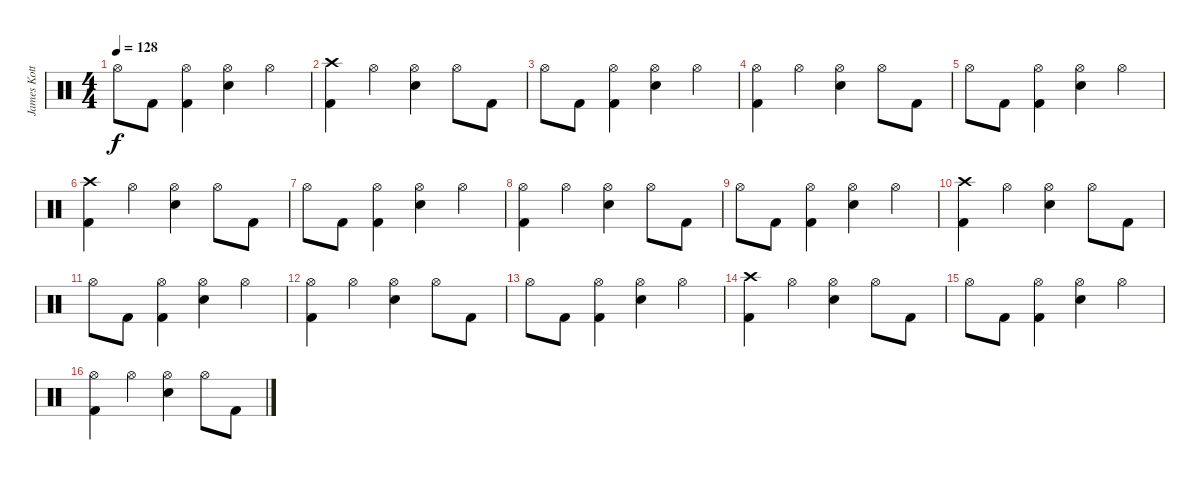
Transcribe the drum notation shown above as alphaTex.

\track ("James Kottak" "James Kott") {instrument percussion}
\staff {score}
\articulation defaults
\ts (4 4)
\tempo 128
\clef neutral
\ks c "Hi-Hat (open)".8{dy f} "Kick (hit) 2".8
("Hi-Hat (open)" "Kick (hit) 2").4 ("Hi-Hat (open)" "Electric Snare (hit)").4 "Hi-Hat (open)".4 |
("Crash high (hit)" "Kick (hit) 2").4 "Hi-Hat (open)".4 ("Hi-Hat (open)" "Electric Snare (hit)").4 "Hi-Hat (open)".8 "Kick (hit) 2".8 |
"Hi-Hat (open)".8 "Kick (hit) 2".8 ("Hi-Hat (open)" "Kick (hit) 2").4 ("Hi-Hat (open)" "Electric Snare (hit)").4 "Hi-Hat (open)".4 |
("Hi-Hat (open)" "Kick (hit) 2").4 "Hi-Hat (open)".4 ("Hi-Hat (open)" "Electric Snare (hit)").4 "Hi-Hat (open)".8 "Kick (hit) 2".8 |
"Hi-Hat (open)".8 "Kick (hit) 2".8 ("Hi-Hat (open)" "Kick (hit) 2").4 ("Hi-Hat (open)" "Electric Snare (hit)").4 "Hi-Hat (open)".4 |
("Crash high (hit)" "Kick (hit) 2").4 "Hi-Hat (open)".4 ("Hi-Hat (open)" "Electric Snare (hit)").4 "Hi-Hat (open)".8 "Kick (hit) 2".8 |
"Hi-Hat (open)".8 "Kick (hit) 2".8 ("Hi-Hat (open)" "Kick (hit) 2").4 ("Hi-Hat (open)" "Electric Snare (hit)").4 "Hi-Hat (open)".4 |
("Hi-Hat (open)" "Kick (hit) 2").4 "Hi-Hat (open)".4 ("Hi-Hat (open)" "Electric Snare (hit)").4 "Hi-Hat (open)".8 "Kick (hit) 2".8 |
"Hi-Hat (open)".8 "Kick (hit) 2".8 ("Hi-Hat (open)" "Kick (hit) 2").4 ("Hi-Hat (open)" "Electric Snare (hit)").4 "Hi-Hat (open)".4 |
("Crash high (hit)" "Kick (hit) 2").4 "Hi-Hat (open)".4 ("Hi-Hat (open)" "Electric Snare (hit)").4 "Hi-Hat (open)".8 "Kick (hit) 2".8 |
"Hi-Hat (open)".8 "Kick (hit) 2".8 ("Hi-Hat (open)" "Kick (hit) 2").4 ("Hi-Hat (open)" "Electric Snare (hit)").4 "Hi-Hat (open)".4 |
("Hi-Hat (open)" "Kick (hit) 2").4 "Hi-Hat (open)".4 ("Hi-Hat (open)" "Electric Snare (hit)").4 "Hi-Hat (open)".8 "Kick (hit) 2".8 |
"Hi-Hat (open)".8 "Kick (hit) 2".8 ("Hi-Hat (open)" "Kick (hit) 2").4 ("Hi-Hat (open)" "Electric Snare (hit)").4 "Hi-Hat (open)".4 |
("Crash high (hit)" "Kick (hit) 2").4 "Hi-Hat (open)".4 ("Hi-Hat (open)" "Electric Snare (hit)").4 "Hi-Hat (open)".8 "Kick (hit) 2".8 |
"Hi-Hat (open)".8 "Kick (hit) 2".8 ("Hi-Hat (open)" "Kick (hit) 2").4 ("Hi-Hat (open)" "Electric Snare (hit)").4 "Hi-Hat (open)".4 |
("Hi-Hat (open)" "Kick (hit) 2").4 "Hi-Hat (open)".4 ("Hi-Hat (open)" "Electric Snare (hit)").4 "Hi-Hat (open)".8 "Kick (hit) 2".8
